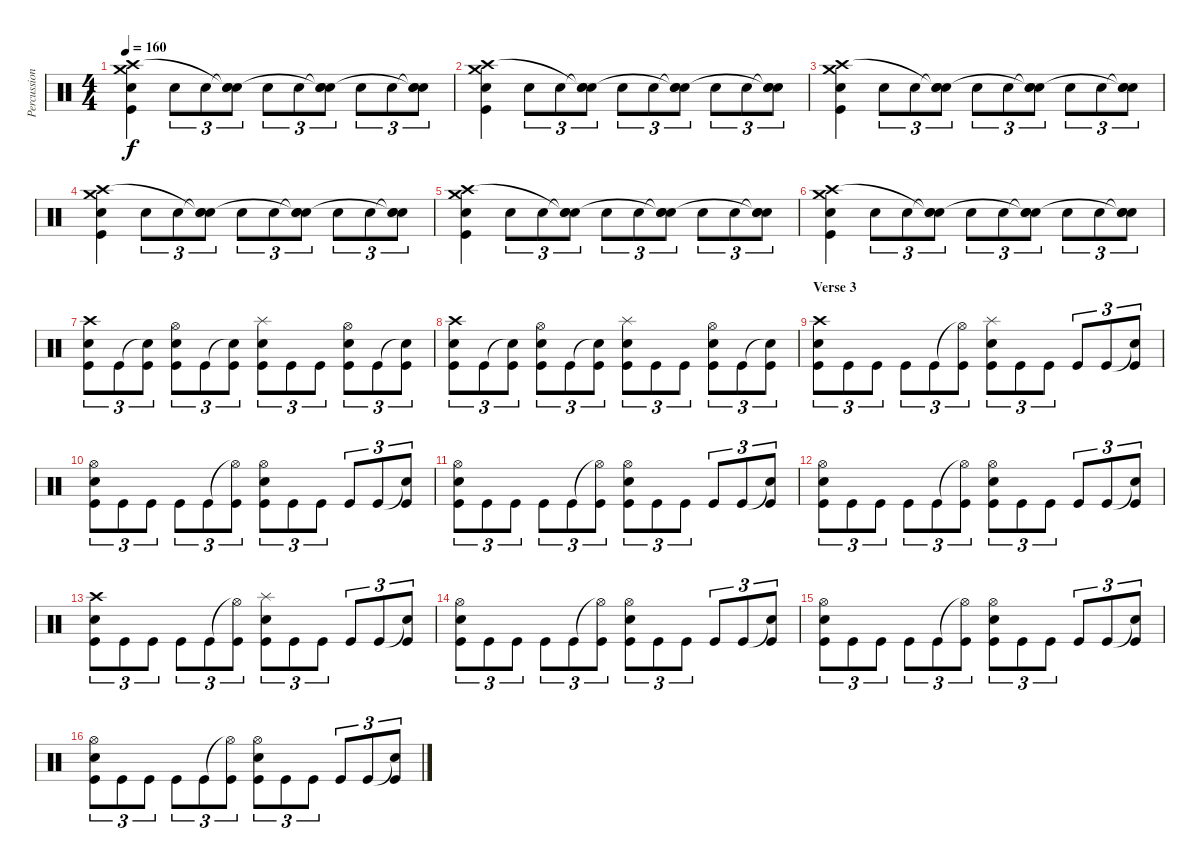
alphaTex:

\track ("Percussion" "Percussion") {instrument percussion}
\staff {score}
\articulation defaults
\ts (4 4)
\tempo 160
\clef neutral
\ks c
("Crash medium (hit)" "Crash high (hit)" "Snare (hit) 2" "Kick (hit)").4{dy f} "Snare (hit) 2".8{tu (3 2)} "Snare (hit) 2".8{tu (3 2)} ("Snare (hit)"{t} "Snare (hit)"{t} "Snare (hit) 2").8{tu (3 2)} "Snare (hit) 2".8{tu (3 2)} "Snare (hit) 2".8{tu (3 2)} ("Snare (hit)"{t} "Snare (hit)"{t} "Snare (hit) 2").8{tu (3 2)} "Snare (hit) 2".8{tu (3 2)} "Snare (hit) 2".8{tu (3 2)} ("Snare (hit)"{t} "Snare (hit)"{t} "Snare (hit) 2").8{tu (3 2)} |
("Crash medium (hit)" "Crash high (hit)" "Snare (hit) 2" "Kick (hit)").4 "Snare (hit) 2".8{tu (3 2)} "Snare (hit) 2".8{tu (3 2)} ("Snare (hit)"{t} "Snare (hit)"{t} "Snare (hit) 2").8{tu (3 2)} "Snare (hit) 2".8{tu (3 2)} "Snare (hit) 2".8{tu (3 2)} ("Snare (hit)"{t} "Snare (hit)"{t} "Snare (hit) 2").8{tu (3 2)} "Snare (hit) 2".8{tu (3 2)} "Snare (hit) 2".8{tu (3 2)} ("Snare (hit)"{t} "Snare (hit)"{t} "Snare (hit) 2").8{tu (3 2)} |
("Crash medium (hit)" "Crash high (hit)" "Snare (hit) 2" "Kick (hit)").4 "Snare (hit) 2".8{tu (3 2)} "Snare (hit) 2".8{tu (3 2)} ("Snare (hit)"{t} "Snare (hit)"{t} "Snare (hit) 2").8{tu (3 2)} "Snare (hit) 2".8{tu (3 2)} "Snare (hit) 2".8{tu (3 2)} ("Snare (hit)"{t} "Snare (hit)"{t} "Snare (hit) 2").8{tu (3 2)} "Snare (hit) 2".8{tu (3 2)} "Snare (hit) 2".8{tu (3 2)} ("Snare (hit)"{t} "Snare (hit)"{t} "Snare (hit) 2").8{tu (3 2)} |
("Crash medium (hit)" "Crash high (hit)" "Snare (hit) 2" "Kick (hit)").4 "Snare (hit) 2".8{tu (3 2)} "Snare (hit) 2".8{tu (3 2)} ("Snare (hit)"{t} "Snare (hit)"{t} "Snare (hit) 2").8{tu (3 2)} "Snare (hit) 2".8{tu (3 2)} "Snare (hit) 2".8{tu (3 2)} ("Snare (hit)"{t} "Snare (hit)"{t} "Snare (hit) 2").8{tu (3 2)} "Snare (hit) 2".8{tu (3 2)} "Snare (hit) 2".8{tu (3 2)} ("Snare (hit)"{t} "Snare (hit)"{t} "Snare (hit) 2").8{tu (3 2)} |
("Crash medium (hit)" "Crash high (hit)" "Snare (hit) 2" "Kick (hit)").4 "Snare (hit) 2".8{tu (3 2)} "Snare (hit) 2".8{tu (3 2)} ("Snare (hit)"{t} "Snare (hit)"{t} "Snare (hit) 2").8{tu (3 2)} "Snare (hit) 2".8{tu (3 2)} "Snare (hit) 2".8{tu (3 2)} ("Snare (hit)"{t} "Snare (hit)"{t} "Snare (hit) 2").8{tu (3 2)} "Snare (hit) 2".8{tu (3 2)} "Snare (hit) 2".8{tu (3 2)} ("Snare (hit)"{t} "Snare (hit)"{t} "Snare (hit) 2").8{tu (3 2)} |
("Crash medium (hit)" "Crash high (hit)" "Snare (hit) 2" "Kick (hit)").4 "Snare (hit) 2".8{tu (3 2)} "Snare (hit) 2".8{tu (3 2)} ("Snare (hit)"{t} "Snare (hit)"{t} "Snare (hit) 2").8{tu (3 2)} "Snare (hit) 2".8{tu (3 2)} "Snare (hit) 2".8{tu (3 2)} ("Snare (hit)"{t} "Snare (hit)"{t} "Snare (hit) 2").8{tu (3 2)} "Snare (hit) 2".8{tu (3 2)} "Snare (hit) 2".8{tu (3 2)} ("Snare (hit)"{t} "Snare (hit)"{t} "Snare (hit) 2").8{tu (3 2)} |
("Snare (hit) 2" "Crash high (hit)" "Kick (hit)").8{tu (3 2)} "Kick (hit)".8{tu (3 2)} ("Snare (hit)"{t} "Kick (hit)").8{tu (3 2)} ("Hi-Hat (open)" "Snare (hit) 2" "Kick (hit)").8{tu (3 2)} "Kick (hit)".8{tu (3 2)} ("Snare (hit)"{t} "Kick (hit)").8{tu (3 2)} ("Splash (hit)" "Snare (hit) 2" "Kick (hit)").8{tu (3 2)} "Kick (hit)".8{tu (3 2)} "Kick (hit)".8{tu (3 2)} ("Hi-Hat (open)" "Snare (hit) 2" "Kick (hit)").8{tu (3 2)} "Kick (hit)".8{tu (3 2)} ("Snare (hit)"{t} "Kick (hit)").8{tu (3 2)} |
("Snare (hit) 2" "Crash high (hit)" "Kick (hit)").8{tu (3 2)} "Kick (hit)".8{tu (3 2)} ("Snare (hit)"{t} "Kick (hit)").8{tu (3 2)} ("Hi-Hat (open)" "Snare (hit) 2" "Kick (hit)").8{tu (3 2)} "Kick (hit)".8{tu (3 2)} ("Snare (hit)"{t} "Kick (hit)").8{tu (3 2)} ("Splash (hit)" "Snare (hit) 2" "Kick (hit)").8{tu (3 2)} "Kick (hit)".8{tu (3 2)} "Kick (hit)".8{tu (3 2)} ("Hi-Hat (open)" "Snare (hit) 2" "Kick (hit)").8{tu (3 2)} "Kick (hit)".8{tu (3 2)} ("Snare (hit)"{t} "Kick (hit)").8{tu (3 2)} |
\section ("" "Verse 3")
("Snare (hit) 2" "Crash high (hit)" "Kick (hit)").8{tu (3 2)} "Kick (hit)".8{tu (3 2)} "Kick (hit)".8{tu (3 2)} "Kick (hit)".8{tu (3 2)} "Kick (hit)".8{tu (3 2)} ("Hi-Hat (open)"{t} "Kick (hit)").8{tu (3 2)} ("Splash (hit)" "Snare (hit) 2" "Kick (hit)").8{tu (3 2)} "Kick (hit)".8{tu (3 2)} "Kick (hit)".8{tu (3 2)} "Kick (hit)".8{tu (3 2)} "Kick (hit)".8{tu (3 2)} ("Snare (hit)"{t} "Kick (hit)").8{tu (3 2)} |
("Snare (hit) 2" "Hi-Hat (open)" "Kick (hit)").8{tu (3 2)} "Kick (hit)".8{tu (3 2)} "Kick (hit)".8{tu (3 2)} "Kick (hit)".8{tu (3 2)} "Kick (hit)".8{tu (3 2)} ("Hi-Hat (open)"{t} "Kick (hit)").8{tu (3 2)} ("Hi-Hat (open)" "Snare (hit) 2" "Kick (hit)").8{tu (3 2)} "Kick (hit)".8{tu (3 2)} "Kick (hit)".8{tu (3 2)} "Kick (hit)".8{tu (3 2)} "Kick (hit)".8{tu (3 2)} ("Snare (hit)"{t} "Kick (hit)").8{tu (3 2)} |
("Snare (hit) 2" "Hi-Hat (open)" "Kick (hit)").8{tu (3 2)} "Kick (hit)".8{tu (3 2)} "Kick (hit)".8{tu (3 2)} "Kick (hit)".8{tu (3 2)} "Kick (hit)".8{tu (3 2)} ("Hi-Hat (open)"{t} "Kick (hit)").8{tu (3 2)} ("Hi-Hat (open)" "Snare (hit) 2" "Kick (hit)").8{tu (3 2)} "Kick (hit)".8{tu (3 2)} "Kick (hit)".8{tu (3 2)} "Kick (hit)".8{tu (3 2)} "Kick (hit)".8{tu (3 2)} ("Snare (hit)"{t} "Kick (hit)").8{tu (3 2)} |
("Snare (hit) 2" "Hi-Hat (open)" "Kick (hit)").8{tu (3 2)} "Kick (hit)".8{tu (3 2)} "Kick (hit)".8{tu (3 2)} "Kick (hit)".8{tu (3 2)} "Kick (hit)".8{tu (3 2)} ("Hi-Hat (open)"{t} "Kick (hit)").8{tu (3 2)} ("Hi-Hat (open)" "Snare (hit) 2" "Kick (hit)").8{tu (3 2)} "Kick (hit)".8{tu (3 2)} "Kick (hit)".8{tu (3 2)} "Kick (hit)".8{tu (3 2)} "Kick (hit)".8{tu (3 2)} ("Snare (hit)"{t} "Kick (hit)").8{tu (3 2)} |
("Snare (hit) 2" "Crash high (hit)" "Kick (hit)").8{tu (3 2)} "Kick (hit)".8{tu (3 2)} "Kick (hit)".8{tu (3 2)} "Kick (hit)".8{tu (3 2)} "Kick (hit)".8{tu (3 2)} ("Hi-Hat (open)"{t} "Kick (hit)").8{tu (3 2)} ("Splash (hit)" "Snare (hit) 2" "Kick (hit)").8{tu (3 2)} "Kick (hit)".8{tu (3 2)} "Kick (hit)".8{tu (3 2)} "Kick (hit)".8{tu (3 2)} "Kick (hit)".8{tu (3 2)} ("Snare (hit)"{t} "Kick (hit)").8{tu (3 2)} |
("Snare (hit) 2" "Hi-Hat (open)" "Kick (hit)").8{tu (3 2)} "Kick (hit)".8{tu (3 2)} "Kick (hit)".8{tu (3 2)} "Kick (hit)".8{tu (3 2)} "Kick (hit)".8{tu (3 2)} ("Hi-Hat (open)"{t} "Kick (hit)").8{tu (3 2)} ("Hi-Hat (open)" "Snare (hit) 2" "Kick (hit)").8{tu (3 2)} "Kick (hit)".8{tu (3 2)} "Kick (hit)".8{tu (3 2)} "Kick (hit)".8{tu (3 2)} "Kick (hit)".8{tu (3 2)} ("Snare (hit)"{t} "Kick (hit)").8{tu (3 2)} |
("Snare (hit) 2" "Hi-Hat (open)" "Kick (hit)").8{tu (3 2)} "Kick (hit)".8{tu (3 2)} "Kick (hit)".8{tu (3 2)} "Kick (hit)".8{tu (3 2)} "Kick (hit)".8{tu (3 2)} ("Hi-Hat (open)"{t} "Kick (hit)").8{tu (3 2)} ("Hi-Hat (open)" "Snare (hit) 2" "Kick (hit)").8{tu (3 2)} "Kick (hit)".8{tu (3 2)} "Kick (hit)".8{tu (3 2)} "Kick (hit)".8{tu (3 2)} "Kick (hit)".8{tu (3 2)} ("Snare (hit)"{t} "Kick (hit)").8{tu (3 2)} |
("Snare (hit) 2" "Hi-Hat (open)" "Kick (hit)").8{tu (3 2)} "Kick (hit)".8{tu (3 2)} "Kick (hit)".8{tu (3 2)} "Kick (hit)".8{tu (3 2)} "Kick (hit)".8{tu (3 2)} ("Hi-Hat (open)"{t} "Kick (hit)").8{tu (3 2)} ("Hi-Hat (open)" "Snare (hit) 2" "Kick (hit)").8{tu (3 2)} "Kick (hit)".8{tu (3 2)} "Kick (hit)".8{tu (3 2)} "Kick (hit)".8{tu (3 2)} "Kick (hit)".8{tu (3 2)} ("Snare (hit)"{t} "Kick (hit)").8{tu (3 2)}
